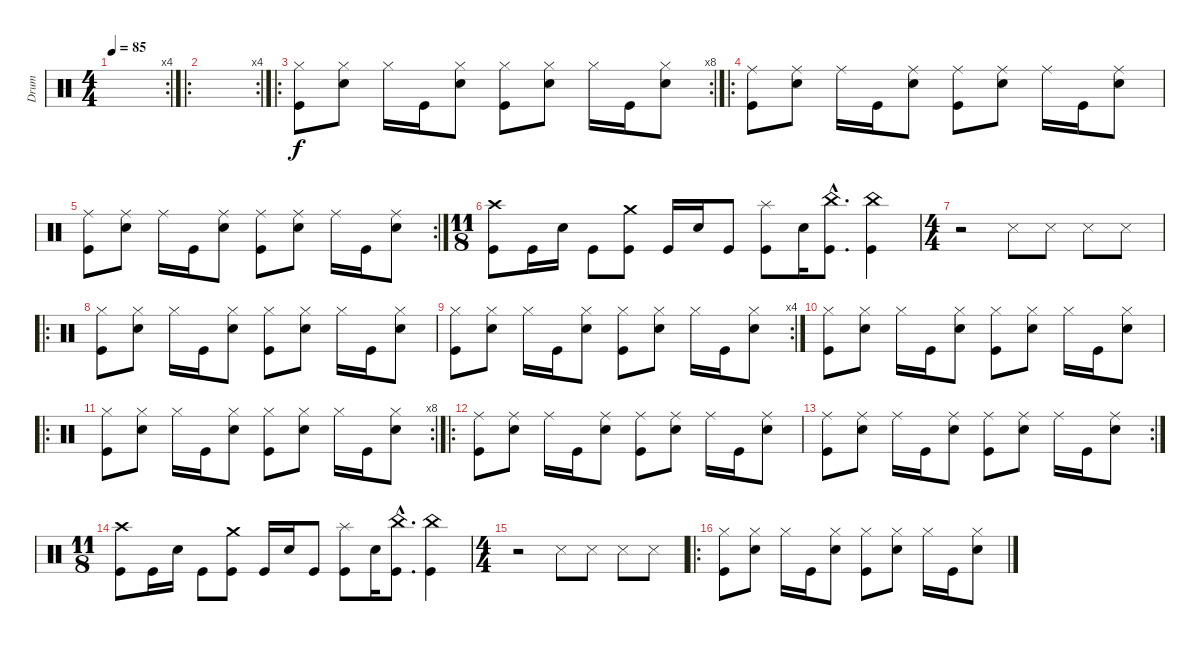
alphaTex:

\track ("Drum" "Drum") {instrument percussion}
\staff {score}
\articulation defaults
\rc 4
\ts (4 4)
\tempo 85
\clef neutral
\ks c
|
\ro
\rc 4
|
\ro
\rc 8
("Hi-Hat (closed)" "Kick (hit)").8 ("Hi-Hat (closed)" "Snare (hit) 2").8 "Hi-Hat (closed)".16 "Kick (hit)".16 ("Hi-Hat (closed)" "Snare (hit) 2").8 ("Hi-Hat (closed)" "Kick (hit)").8 ("Hi-Hat (closed)" "Snare (hit) 2").8 "Hi-Hat (closed)".16 "Kick (hit)".16 ("Hi-Hat (closed)" "Snare (hit) 2").8 |
\ro
("Ride (middle)" "Kick (hit)").8 ("Ride (middle)" "Snare (hit) 2").8 "Ride (middle)".16 "Kick (hit)".16 ("Ride (middle)" "Snare (hit) 2").8 ("Ride (middle)" "Kick (hit)").8 ("Ride (middle)" "Snare (hit) 2").8 "Ride (middle)".16 "Kick (hit)".16 ("Ride (middle)" "Snare (hit) 2").8 |
\rc 2
("Ride (middle)" "Kick (hit)").8 ("Ride (middle)" "Snare (hit) 2").8 "Ride (middle)".16 "Kick (hit)".16 ("Ride (middle)" "Snare (hit) 2").8 ("Ride (middle)" "Kick (hit)").8 ("Ride (middle)" "Snare (hit) 2").8 "Ride (middle)".16 "Kick (hit)".16 ("Ride (middle)" "Snare (hit) 2").8 |
\ts (11 8)
("Crash high (hit)" "Kick (hit)").8 "Kick (hit)".16 "Snare (hit) 2".16 "Kick (hit)".8 ("Crash medium (hit)" "Kick (hit)").8 "Kick (hit)".16 "Snare (hit) 2".16 "Kick (hit)".8 ("Splash (hit)" "Kick (hit)").8 "Snare (hit) 2".16 ("China (hit)"{hac} "Kick (hit)"{hac}).8{d} ("China (hit)" "Kick (hit)").4 |
\ts (4 4)
r.2 "Snare (side stick) 3".8 "Snare (side stick) 3".8 "Snare (side stick) 3".8 "Snare (side stick) 3".8 |
\ro
("Hi-Hat (closed)" "Kick (hit)").8 ("Hi-Hat (closed)" "Snare (hit) 2").8 "Hi-Hat (closed)".16 "Kick (hit)".16 ("Hi-Hat (closed)" "Snare (hit) 2").8 ("Hi-Hat (closed)" "Kick (hit)").8 ("Hi-Hat (closed)" "Snare (hit) 2").8 "Hi-Hat (closed)".16 "Kick (hit)".16 ("Hi-Hat (closed)" "Snare (hit) 2").8 |
\rc 4
("Hi-Hat (closed)" "Kick (hit)").8 ("Hi-Hat (closed)" "Snare (hit) 2").8 "Hi-Hat (closed)".16 "Kick (hit)".16 ("Hi-Hat (closed)" "Snare (hit) 2").8 ("Hi-Hat (closed)" "Kick (hit)").8 ("Hi-Hat (closed)" "Snare (hit) 2").8 "Hi-Hat (closed)".16 "Kick (hit)".16 ("Hi-Hat (closed)" "Snare (hit) 2").8 |
("Hi-Hat (closed)" "Kick (hit)").8 ("Hi-Hat (closed)" "Snare (hit) 2").8 "Hi-Hat (closed)".16 "Kick (hit)".16 ("Hi-Hat (closed)" "Snare (hit) 2").8 ("Hi-Hat (closed)" "Kick (hit)").8 ("Hi-Hat (closed)" "Snare (hit) 2").8 "Hi-Hat (closed)".16 "Kick (hit)".16 ("Hi-Hat (closed)" "Snare (hit) 2").8 |
\ro
\rc 8
("Hi-Hat (closed)" "Kick (hit)").8 ("Hi-Hat (closed)" "Snare (hit) 2").8 "Hi-Hat (closed)".16 "Kick (hit)".16 ("Hi-Hat (closed)" "Snare (hit) 2").8 ("Hi-Hat (closed)" "Kick (hit)").8 ("Hi-Hat (closed)" "Snare (hit) 2").8 "Hi-Hat (closed)".16 "Kick (hit)".16 ("Hi-Hat (closed)" "Snare (hit) 2").8 |
\ro
("Ride (middle)" "Kick (hit)").8 ("Ride (middle)" "Snare (hit) 2").8 "Ride (middle)".16 "Kick (hit)".16 ("Ride (middle)" "Snare (hit) 2").8 ("Ride (middle)" "Kick (hit)").8 ("Ride (middle)" "Snare (hit) 2").8 "Ride (middle)".16 "Kick (hit)".16 ("Ride (middle)" "Snare (hit) 2").8 |
\rc 2
("Ride (middle)" "Kick (hit)").8 ("Ride (middle)" "Snare (hit) 2").8 "Ride (middle)".16 "Kick (hit)".16 ("Ride (middle)" "Snare (hit) 2").8 ("Ride (middle)" "Kick (hit)").8 ("Ride (middle)" "Snare (hit) 2").8 "Ride (middle)".16 "Kick (hit)".16 ("Ride (middle)" "Snare (hit) 2").8 |
\ts (11 8)
("Crash high (hit)" "Kick (hit)").8 "Kick (hit)".16 "Snare (hit) 2".16 "Kick (hit)".8 ("Crash medium (hit)" "Kick (hit)").8 "Kick (hit)".16 "Snare (hit) 2".16 "Kick (hit)".8 ("Splash (hit)" "Kick (hit)").8 "Snare (hit) 2".16 ("China (hit)"{hac} "Kick (hit)"{hac}).8{d} ("China (hit)" "Kick (hit)").4 |
\ts (4 4)
r.2 "Snare (side stick) 3".8 "Snare (side stick) 3".8 "Snare (side stick) 3".8 "Snare (side stick) 3".8 |
\ro
("Hi-Hat (closed)" "Kick (hit)").8 ("Hi-Hat (closed)" "Snare (hit) 2").8 "Hi-Hat (closed)".16 "Kick (hit)".16 ("Hi-Hat (closed)" "Snare (hit) 2").8 ("Hi-Hat (closed)" "Kick (hit)").8 ("Hi-Hat (closed)" "Snare (hit) 2").8 "Hi-Hat (closed)".16 "Kick (hit)".16 ("Hi-Hat (closed)" "Snare (hit) 2").8
